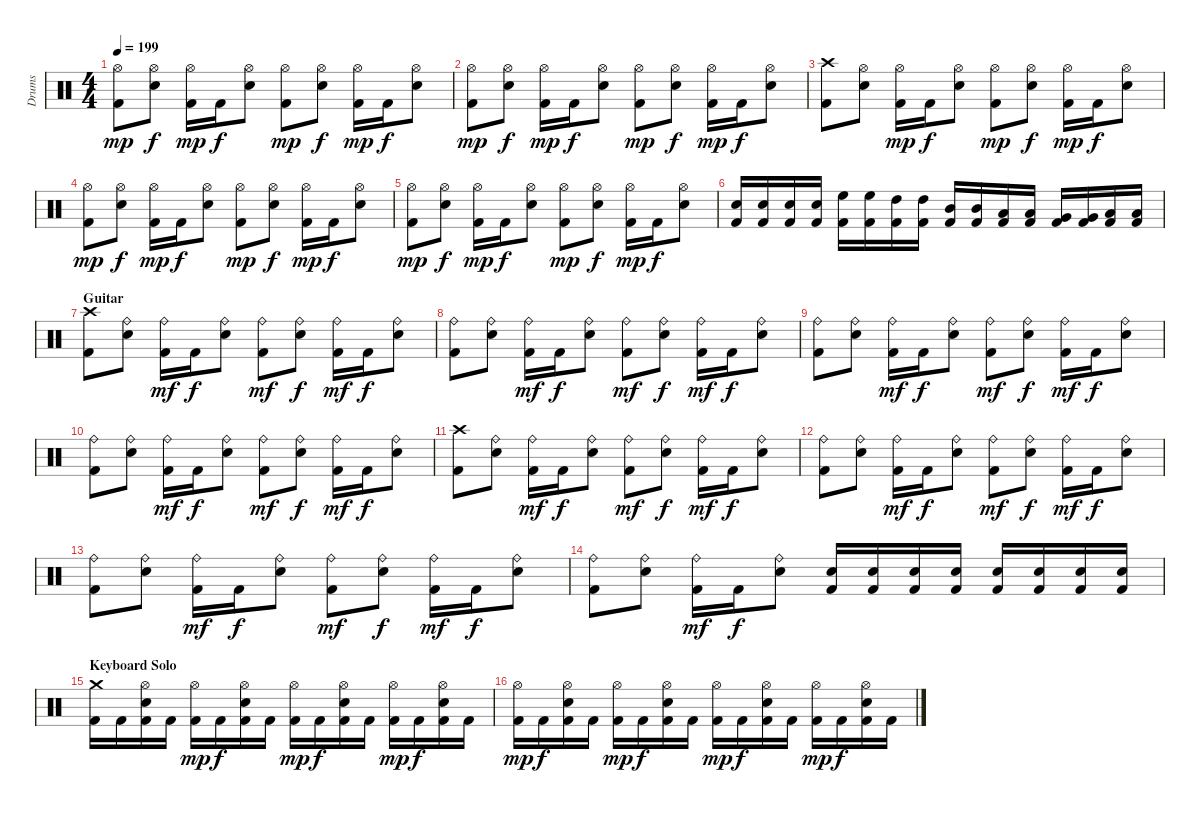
\track ("Drums" "Drums") {instrument percussion}
\staff {score}
\articulation defaults
\ts (4 4)
\tempo 199
\clef neutral
\ks c
("Kick (hit) 2" "Hi-Hat (open)").8{dy mp} ("Snare (hit) 2" "Hi-Hat (open)").8{dy f} ("Kick (hit) 2" "Hi-Hat (open)").16{dy mp} "Kick (hit) 2".16{dy f} ("Snare (hit) 2" "Hi-Hat (open)").8 ("Kick (hit) 2" "Hi-Hat (open)").8{dy mp} ("Snare (hit) 2" "Hi-Hat (open)").8{dy f} ("Kick (hit) 2" "Hi-Hat (open)").16{dy mp} "Kick (hit) 2".16{dy f} ("Snare (hit) 2" "Hi-Hat (open)").8 |
("Kick (hit) 2" "Hi-Hat (open)").8{dy mp} ("Snare (hit) 2" "Hi-Hat (open)").8{dy f} ("Kick (hit) 2" "Hi-Hat (open)").16{dy mp} "Kick (hit) 2".16{dy f} ("Snare (hit) 2" "Hi-Hat (open)").8 ("Kick (hit) 2" "Hi-Hat (open)").8{dy mp} ("Snare (hit) 2" "Hi-Hat (open)").8{dy f} ("Kick (hit) 2" "Hi-Hat (open)").16{dy mp} "Kick (hit) 2".16{dy f} ("Snare (hit) 2" "Hi-Hat (open)").8 |
("Kick (hit) 2" "Crash high (hit)").8 ("Snare (hit) 2" "Hi-Hat (open)").8 ("Kick (hit) 2" "Hi-Hat (open)").16{dy mp} "Kick (hit) 2".16{dy f} ("Snare (hit) 2" "Hi-Hat (open)").8 ("Kick (hit) 2" "Hi-Hat (open)").8{dy mp} ("Snare (hit) 2" "Hi-Hat (open)").8{dy f} ("Kick (hit) 2" "Hi-Hat (open)").16{dy mp} "Kick (hit) 2".16{dy f} ("Snare (hit) 2" "Hi-Hat (open)").8 |
("Kick (hit) 2" "Hi-Hat (open)").8{dy mp} ("Snare (hit) 2" "Hi-Hat (open)").8{dy f} ("Kick (hit) 2" "Hi-Hat (open)").16{dy mp} "Kick (hit) 2".16{dy f} ("Snare (hit) 2" "Hi-Hat (open)").8 ("Kick (hit) 2" "Hi-Hat (open)").8{dy mp} ("Snare (hit) 2" "Hi-Hat (open)").8{dy f} ("Kick (hit) 2" "Hi-Hat (open)").16{dy mp} "Kick (hit) 2".16{dy f} ("Snare (hit) 2" "Hi-Hat (open)").8 |
("Kick (hit) 2" "Hi-Hat (open)").8{dy mp} ("Snare (hit) 2" "Hi-Hat (open)").8{dy f} ("Kick (hit) 2" "Hi-Hat (open)").16{dy mp} "Kick (hit) 2".16{dy f} ("Snare (hit) 2" "Hi-Hat (open)").8 ("Kick (hit) 2" "Hi-Hat (open)").8{dy mp} ("Snare (hit) 2" "Hi-Hat (open)").8{dy f} ("Kick (hit) 2" "Hi-Hat (open)").16{dy mp} "Kick (hit) 2".16{dy f} ("Snare (hit) 2" "Hi-Hat (open)").8 |
("Kick (hit) 2" "Snare (hit) 2").16 ("Kick (hit) 2" "Snare (hit) 2").16 ("Kick (hit) 2" "Snare (hit) 2").16 ("Kick (hit) 2" "Snare (hit) 2").16 ("Kick (hit) 2" "High Floor Tom (hit)").16 ("Kick (hit) 2" "High Floor Tom (hit)").16 ("Kick (hit) 2" "High Tom (hit)").16 ("Kick (hit) 2" "High Tom (hit)").16 ("Kick (hit) 2" "Mid Tom (hit)").16 ("Kick (hit) 2" "Mid Tom (hit)").16 ("Kick (hit) 2" "Low Tom (hit)").16 ("Kick (hit) 2" "Low Tom (hit)").16 ("Kick (hit) 2" "Very Low Tom (hit)").16 ("Kick (hit) 2" "Very Low Tom (hit)").16 ("Kick (hit) 2" "Low Floor Tom (hit)").16 ("Kick (hit) 2" "Low Floor Tom (hit)").16 |
\section ("" "Guitar")
("Kick (hit) 2" "Crash high (hit)").8 ("Snare (hit) 2" "Ride (bell)").8 ("Kick (hit) 2" "Ride (bell)").16{dy mf} "Kick (hit) 2".16{dy f} ("Snare (hit) 2" "Ride (bell)").8 ("Kick (hit) 2" "Ride (bell)").8{dy mf} ("Snare (hit) 2" "Ride (bell)").8{dy f} ("Kick (hit) 2" "Ride (bell)").16{dy mf} "Kick (hit) 2".16{dy f} ("Snare (hit) 2" "Ride (bell)").8 |
("Kick (hit) 2" "Ride (bell)").8 ("Snare (hit) 2" "Ride (bell)").8 ("Kick (hit) 2" "Ride (bell)").16{dy mf} "Kick (hit) 2".16{dy f} ("Snare (hit) 2" "Ride (bell)").8 ("Kick (hit) 2" "Ride (bell)").8{dy mf} ("Snare (hit) 2" "Ride (bell)").8{dy f} ("Kick (hit) 2" "Ride (bell)").16{dy mf} "Kick (hit) 2".16{dy f} ("Snare (hit) 2" "Ride (bell)").8 |
("Kick (hit) 2" "Ride (bell)").8 ("Snare (hit) 2" "Ride (bell)").8 ("Kick (hit) 2" "Ride (bell)").16{dy mf} "Kick (hit) 2".16{dy f} ("Snare (hit) 2" "Ride (bell)").8 ("Kick (hit) 2" "Ride (bell)").8{dy mf} ("Snare (hit) 2" "Ride (bell)").8{dy f} ("Kick (hit) 2" "Ride (bell)").16{dy mf} "Kick (hit) 2".16{dy f} ("Snare (hit) 2" "Ride (bell)").8 |
("Kick (hit) 2" "Ride (bell)").8 ("Snare (hit) 2" "Ride (bell)").8 ("Kick (hit) 2" "Ride (bell)").16{dy mf} "Kick (hit) 2".16{dy f} ("Snare (hit) 2" "Ride (bell)").8 ("Kick (hit) 2" "Ride (bell)").8{dy mf} ("Snare (hit) 2" "Ride (bell)").8{dy f} ("Kick (hit) 2" "Ride (bell)").16{dy mf} "Kick (hit) 2".16{dy f} ("Snare (hit) 2" "Ride (bell)").8 |
("Kick (hit) 2" "Crash high (hit)").8 ("Snare (hit) 2" "Ride (bell)").8 ("Kick (hit) 2" "Ride (bell)").16{dy mf} "Kick (hit) 2".16{dy f} ("Snare (hit) 2" "Ride (bell)").8 ("Kick (hit) 2" "Ride (bell)").8{dy mf} ("Snare (hit) 2" "Ride (bell)").8{dy f} ("Kick (hit) 2" "Ride (bell)").16{dy mf} "Kick (hit) 2".16{dy f} ("Snare (hit) 2" "Ride (bell)").8 |
("Kick (hit) 2" "Ride (bell)").8 ("Snare (hit) 2" "Ride (bell)").8 ("Kick (hit) 2" "Ride (bell)").16{dy mf} "Kick (hit) 2".16{dy f} ("Snare (hit) 2" "Ride (bell)").8 ("Kick (hit) 2" "Ride (bell)").8{dy mf} ("Snare (hit) 2" "Ride (bell)").8{dy f} ("Kick (hit) 2" "Ride (bell)").16{dy mf} "Kick (hit) 2".16{dy f} ("Snare (hit) 2" "Ride (bell)").8 |
("Kick (hit) 2" "Ride (bell)").8 ("Snare (hit) 2" "Ride (bell)").8 ("Kick (hit) 2" "Ride (bell)").16{dy mf} "Kick (hit) 2".16{dy f} ("Snare (hit) 2" "Ride (bell)").8 ("Kick (hit) 2" "Ride (bell)").8{dy mf} ("Snare (hit) 2" "Ride (bell)").8{dy f} ("Kick (hit) 2" "Ride (bell)").16{dy mf} "Kick (hit) 2".16{dy f} ("Snare (hit) 2" "Ride (bell)").8 |
("Kick (hit) 2" "Ride (bell)").8 ("Snare (hit) 2" "Ride (bell)").8 ("Kick (hit) 2" "Ride (bell)").16{dy mf} "Kick (hit) 2".16{dy f} ("Snare (hit) 2" "Ride (bell)").8 ("Kick (hit) 2" "Snare (hit) 2").16 ("Kick (hit) 2" "Snare (hit) 2").16 ("Kick (hit) 2" "Snare (hit) 2").16 ("Kick (hit) 2" "Snare (hit) 2").16 ("Kick (hit) 2" "Snare (hit) 2").16 ("Kick (hit) 2" "Snare (hit) 2").16 ("Kick (hit) 2" "Snare (hit) 2").16 ("Kick (hit) 2" "Snare (hit) 2").16 |
\section ("" "Keyboard Solo")
("Kick (hit) 2" "Crash medium (hit)").16 "Kick (hit) 2".16 ("Kick (hit) 2" "Snare (hit) 2" "Hi-Hat (open)").16 "Kick (hit) 2".16 ("Kick (hit) 2" "Hi-Hat (open)").16{dy mp} "Kick (hit) 2".16{dy f} ("Kick (hit) 2" "Snare (hit) 2" "Hi-Hat (open)").16 "Kick (hit) 2".16 ("Kick (hit) 2" "Hi-Hat (open)").16{dy mp} "Kick (hit) 2".16{dy f} ("Kick (hit) 2" "Snare (hit) 2" "Hi-Hat (open)").16 "Kick (hit) 2".16 ("Kick (hit) 2" "Hi-Hat (open)").16{dy mp} "Kick (hit) 2".16{dy f} ("Kick (hit) 2" "Snare (hit) 2" "Hi-Hat (open)").16 "Kick (hit) 2".16 |
("Kick (hit) 2" "Hi-Hat (open)").16{dy mp} "Kick (hit) 2".16{dy f} ("Kick (hit) 2" "Snare (hit) 2" "Hi-Hat (open)").16 "Kick (hit) 2".16 ("Kick (hit) 2" "Hi-Hat (open)").16{dy mp} "Kick (hit) 2".16{dy f} ("Kick (hit) 2" "Snare (hit) 2" "Hi-Hat (open)").16 "Kick (hit) 2".16 ("Kick (hit) 2" "Hi-Hat (open)").16{dy mp} "Kick (hit) 2".16{dy f} ("Kick (hit) 2" "Snare (hit) 2" "Hi-Hat (open)").16 "Kick (hit) 2".16 ("Kick (hit) 2" "Hi-Hat (open)").16{dy mp} "Kick (hit) 2".16{dy f} ("Kick (hit) 2" "Snare (hit) 2" "Hi-Hat (open)").16 "Kick (hit) 2".16
